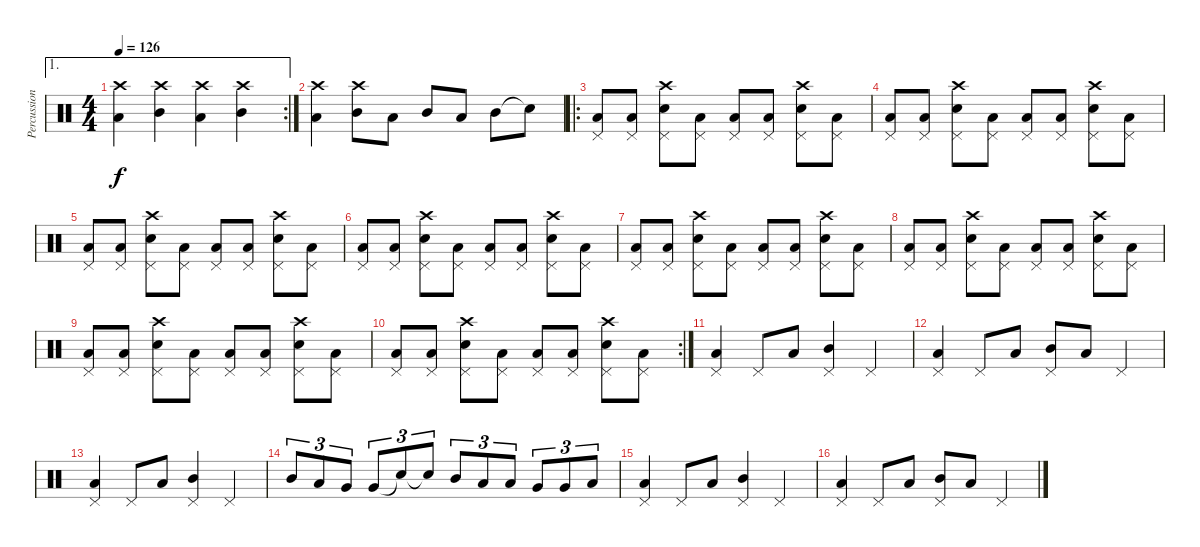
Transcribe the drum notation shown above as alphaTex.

\track ("Percussion" "Percussion") {instrument percussion}
\staff {score}
\articulation defaults
\ae 1
\rc 2
\ts (4 4)
\tempo 126
\clef neutral
\ks c
("Low Floor Tom (hit)" "Crash high (hit)").4{dy f} ("Mid Tom (hit)" "Crash high (hit)").4 ("Low Floor Tom (hit)" "Crash high (hit)").4 ("Mid Tom (hit)" "Crash high (hit)").4 |
("Low Floor Tom (hit)" "Crash high (hit)").4 ("Mid Tom (hit)" "Crash high (hit)").8 "Low Floor Tom (hit)".8 "Mid Tom (hit)".8 "Low Floor Tom (hit)".8 "Mid Tom (hit)".8 "Snare (hit)"{t}.8 |
\ro
("Low Floor Tom (hit)" "Pedal Hi-Hat (hit)").8 ("Pedal Hi-Hat (hit)" "Low Tom (hit)").8 ("Electric Snare (hit)" "Crash high (hit)" "Pedal Hi-Hat (hit)").8 ("Pedal Hi-Hat (hit)" "Low Tom (hit)").8 ("Low Floor Tom (hit)" "Pedal Hi-Hat (hit)").8 ("Low Floor Tom (hit)" "Pedal Hi-Hat (hit)").8 ("Electric Snare (hit)" "Crash high (hit)" "Pedal Hi-Hat (hit)").8 ("Pedal Hi-Hat (hit)" "Low Tom (hit)").8 |
("Low Floor Tom (hit)" "Pedal Hi-Hat (hit)").8 ("Pedal Hi-Hat (hit)" "Low Tom (hit)").8 ("Electric Snare (hit)" "Crash high (hit)" "Pedal Hi-Hat (hit)").8 ("Pedal Hi-Hat (hit)" "Low Tom (hit)").8 ("Low Floor Tom (hit)" "Pedal Hi-Hat (hit)").8 ("Low Floor Tom (hit)" "Pedal Hi-Hat (hit)").8 ("Electric Snare (hit)" "Crash high (hit)" "Pedal Hi-Hat (hit)").8 ("Pedal Hi-Hat (hit)" "Low Tom (hit)").8 |
("Low Floor Tom (hit)" "Pedal Hi-Hat (hit)").8 ("Pedal Hi-Hat (hit)" "Low Tom (hit)").8 ("Electric Snare (hit)" "Crash high (hit)" "Pedal Hi-Hat (hit)").8 ("Pedal Hi-Hat (hit)" "Low Tom (hit)").8 ("Low Floor Tom (hit)" "Pedal Hi-Hat (hit)").8 ("Low Floor Tom (hit)" "Pedal Hi-Hat (hit)").8 ("Electric Snare (hit)" "Crash high (hit)" "Pedal Hi-Hat (hit)").8 ("Pedal Hi-Hat (hit)" "Low Tom (hit)").8 |
("Low Floor Tom (hit)" "Pedal Hi-Hat (hit)").8 ("Pedal Hi-Hat (hit)" "Low Tom (hit)").8 ("Electric Snare (hit)" "Crash high (hit)" "Pedal Hi-Hat (hit)").8 ("Pedal Hi-Hat (hit)" "Low Tom (hit)").8 ("Low Floor Tom (hit)" "Pedal Hi-Hat (hit)").8 ("Low Floor Tom (hit)" "Pedal Hi-Hat (hit)").8 ("Electric Snare (hit)" "Crash high (hit)" "Pedal Hi-Hat (hit)").8 ("Pedal Hi-Hat (hit)" "Low Tom (hit)").8 |
("Low Floor Tom (hit)" "Pedal Hi-Hat (hit)").8 ("Pedal Hi-Hat (hit)" "Low Tom (hit)").8 ("Electric Snare (hit)" "Crash high (hit)" "Pedal Hi-Hat (hit)").8 ("Pedal Hi-Hat (hit)" "Low Tom (hit)").8 ("Low Floor Tom (hit)" "Pedal Hi-Hat (hit)").8 ("Low Floor Tom (hit)" "Pedal Hi-Hat (hit)").8 ("Electric Snare (hit)" "Crash high (hit)" "Pedal Hi-Hat (hit)").8 ("Pedal Hi-Hat (hit)" "Low Tom (hit)").8 |
("Low Floor Tom (hit)" "Pedal Hi-Hat (hit)").8 ("Pedal Hi-Hat (hit)" "Low Tom (hit)").8 ("Electric Snare (hit)" "Crash high (hit)" "Pedal Hi-Hat (hit)").8 ("Pedal Hi-Hat (hit)" "Low Tom (hit)").8 ("Low Floor Tom (hit)" "Pedal Hi-Hat (hit)").8 ("Low Floor Tom (hit)" "Pedal Hi-Hat (hit)").8 ("Electric Snare (hit)" "Crash high (hit)" "Pedal Hi-Hat (hit)").8 ("Pedal Hi-Hat (hit)" "Low Tom (hit)").8 |
("Low Floor Tom (hit)" "Pedal Hi-Hat (hit)").8 ("Pedal Hi-Hat (hit)" "Low Tom (hit)").8 ("Electric Snare (hit)" "Crash high (hit)" "Pedal Hi-Hat (hit)").8 ("Pedal Hi-Hat (hit)" "Low Tom (hit)").8 ("Low Floor Tom (hit)" "Pedal Hi-Hat (hit)").8 ("Low Floor Tom (hit)" "Pedal Hi-Hat (hit)").8 ("Electric Snare (hit)" "Crash high (hit)" "Pedal Hi-Hat (hit)").8 ("Pedal Hi-Hat (hit)" "Low Tom (hit)").8 |
\rc 2
("Low Floor Tom (hit)" "Pedal Hi-Hat (hit)").8 ("Pedal Hi-Hat (hit)" "Low Tom (hit)").8 ("Electric Snare (hit)" "Crash high (hit)" "Pedal Hi-Hat (hit)").8 ("Pedal Hi-Hat (hit)" "Low Tom (hit)").8 ("Low Floor Tom (hit)" "Pedal Hi-Hat (hit)").8 ("Low Floor Tom (hit)" "Pedal Hi-Hat (hit)").8 ("Electric Snare (hit)" "Crash high (hit)" "Pedal Hi-Hat (hit)").8 ("Pedal Hi-Hat (hit)" "Low Tom (hit)").8 |
("Pedal Hi-Hat (hit)" "Low Tom (hit)").4 "Pedal Hi-Hat (hit)".8 "Low Tom (hit)".8 ("Pedal Hi-Hat (hit)" "Mid Tom (hit)").4 "Pedal Hi-Hat (hit)".4 |
("Pedal Hi-Hat (hit)" "Low Tom (hit)").4 "Pedal Hi-Hat (hit)".8 "Low Tom (hit)".8 ("Pedal Hi-Hat (hit)" "Mid Tom (hit)").8 "Low Tom (hit)".8 "Pedal Hi-Hat (hit)".4 |
("Pedal Hi-Hat (hit)" "Low Tom (hit)").4 "Pedal Hi-Hat (hit)".8 "Low Tom (hit)".8 ("Pedal Hi-Hat (hit)" "Mid Tom (hit)").4 "Pedal Hi-Hat (hit)".4 |
"Mid Tom (hit)".8{tu (3 2)} "Low Tom (hit)".8{tu (3 2)} "Very Low Tom (hit)".8{tu (3 2)} "Very Low Tom (hit)".8{tu (3 2)} "Snare (hit)"{t}.8{tu (3 2)} "Snare (hit)"{t}.8{tu (3 2)} "Mid Tom (hit)".8{tu (3 2)} "Low Tom (hit)".8{tu (3 2)} "Low Tom (hit)".8{tu (3 2)} "Very Low Tom (hit)".8{tu (3 2)} "Very Low Tom (hit)".8{tu (3 2)} "Low Floor Tom (hit)".8{tu (3 2)} |
("Pedal Hi-Hat (hit)" "Low Tom (hit)").4 "Pedal Hi-Hat (hit)".8 "Low Tom (hit)".8 ("Pedal Hi-Hat (hit)" "Mid Tom (hit)").4 "Pedal Hi-Hat (hit)".4 |
("Pedal Hi-Hat (hit)" "Low Tom (hit)").4 "Pedal Hi-Hat (hit)".8 "Low Tom (hit)".8 ("Pedal Hi-Hat (hit)" "Mid Tom (hit)").8 "Low Tom (hit)".8 "Pedal Hi-Hat (hit)".4
